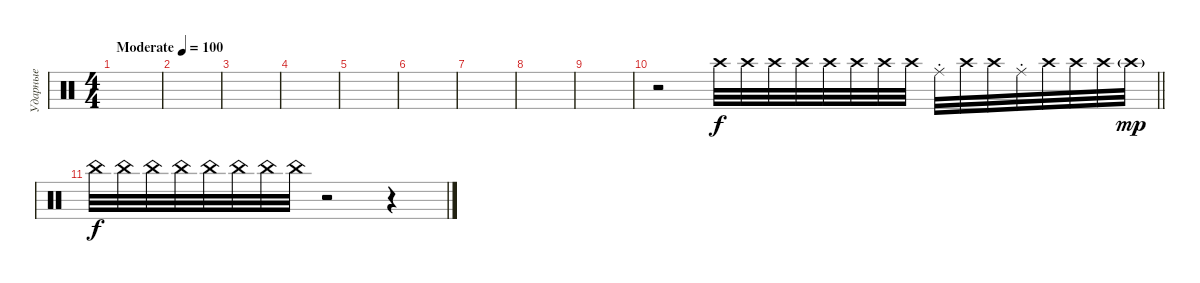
\track ("Ударные" "Ударные") {instrument percussion}
\staff
\articulation defaults
\ts (4 4)
\tempo (100 "Moderate")
\clef neutral
\ks c
|
|
|
|
|
|
|
|
|
\barLineRight lightlight
r.2 "Crash high (hit)".32{volume 16} "Crash high (hit)".32 "Crash high (hit)".32 "Crash high (hit)".32 "Crash high (hit)".32 "Crash high (hit)".32 "Crash high (hit)".32 "Crash high (hit)".32 "Ride (choke)".32 "Crash high (hit)".32 "Crash high (hit)".32 "Ride (choke)".32 "Crash high (hit)".32 "Crash high (hit)".32 "Crash high (hit)".32 "Crash high (hit)"{g}.32{dy mp} |
"China (hit)".32{dy f volume 1} "China (hit)".32 "China (hit)".32 "China (hit)".32 "China (hit)".32 "China (hit)".32 "China (hit)".32 "China (hit)".32 r.2 r.4
